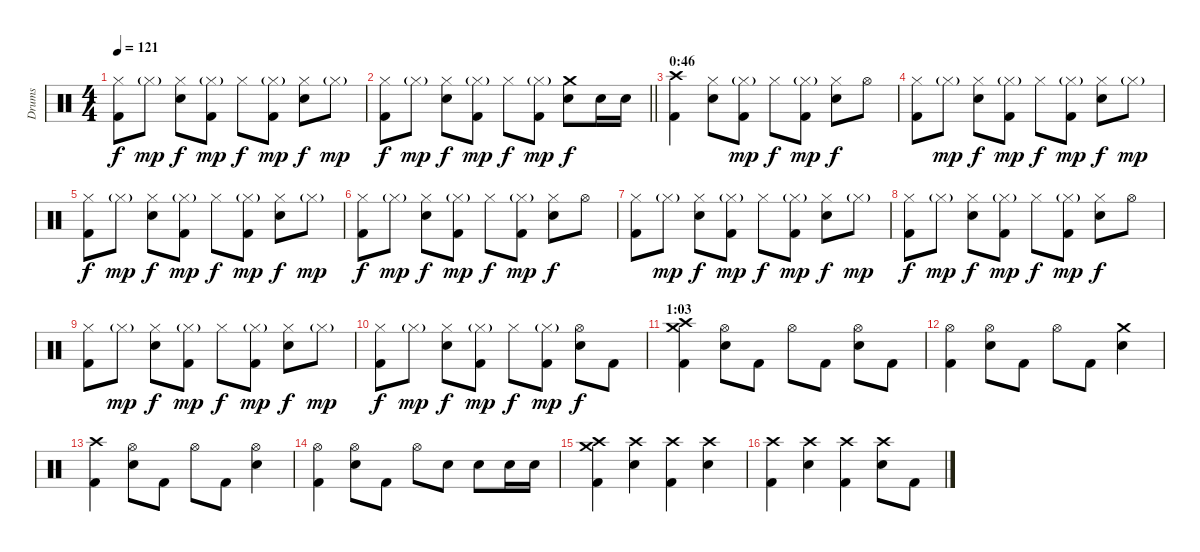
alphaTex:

\track ("Drums" "Drums") {instrument percussion}
\staff {score}
\articulation defaults
\ts (4 4)
\tempo 121
\clef neutral
\ks c
("Hi-Hat (closed)" "Kick (hit) 2").8{dy f} "Hi-Hat (closed)"{g}.8{dy mp} ("Hi-Hat (closed)" "Snare (hit) 2").8{dy f} ("Hi-Hat (closed)"{g} "Kick (hit) 2").8{dy mp} "Hi-Hat (closed)".8{dy f} ("Hi-Hat (closed)"{g} "Kick (hit) 2").8{dy mp} ("Hi-Hat (closed)" "Snare (hit) 2").8{dy f} "Hi-Hat (closed)"{g}.8{dy mp} |
\barLineRight lightlight
("Hi-Hat (closed)" "Kick (hit) 2").8{dy f} "Hi-Hat (closed)"{g}.8{dy mp} ("Hi-Hat (closed)" "Snare (hit) 2").8{dy f} ("Hi-Hat (closed)"{g} "Kick (hit) 2").8{dy mp} "Hi-Hat (closed)".8{dy f} ("Hi-Hat (closed)"{g} "Kick (hit) 2").8{dy mp} ("Crash medium (hit)" "Snare (hit) 2").8{dy f} "Snare (hit) 2".16 "Snare (hit) 2".16 |
\section ("" "0:46")
("Crash high (hit)" "Kick (hit) 2").4 ("Hi-Hat (closed)" "Snare (hit) 2").8 ("Hi-Hat (closed)"{g} "Kick (hit) 2").8{dy mp} "Hi-Hat (closed)".8{dy f} ("Hi-Hat (closed)"{g} "Kick (hit) 2").8{dy mp} ("Hi-Hat (closed)" "Snare (hit) 2").8{dy f} "Hi-Hat (open)".8 |
("Hi-Hat (closed)" "Kick (hit) 2").8 "Hi-Hat (closed)"{g}.8{dy mp} ("Hi-Hat (closed)" "Snare (hit) 2").8{dy f} ("Hi-Hat (closed)"{g} "Kick (hit) 2").8{dy mp} "Hi-Hat (closed)".8{dy f} ("Hi-Hat (closed)"{g} "Kick (hit) 2").8{dy mp} ("Hi-Hat (closed)" "Snare (hit) 2").8{dy f} "Hi-Hat (closed)"{g}.8{dy mp} |
("Hi-Hat (closed)" "Kick (hit) 2").8{dy f} "Hi-Hat (closed)"{g}.8{dy mp} ("Hi-Hat (closed)" "Snare (hit) 2").8{dy f} ("Hi-Hat (closed)"{g} "Kick (hit) 2").8{dy mp} "Hi-Hat (closed)".8{dy f} ("Hi-Hat (closed)"{g} "Kick (hit) 2").8{dy mp} ("Hi-Hat (closed)" "Snare (hit) 2").8{dy f} "Hi-Hat (closed)"{g}.8{dy mp} |
("Hi-Hat (closed)" "Kick (hit) 2").8{dy f} "Hi-Hat (closed)"{g}.8{dy mp} ("Hi-Hat (closed)" "Snare (hit) 2").8{dy f} ("Hi-Hat (closed)"{g} "Kick (hit) 2").8{dy mp} "Hi-Hat (closed)".8{dy f} ("Hi-Hat (closed)"{g} "Kick (hit) 2").8{dy mp} ("Hi-Hat (closed)" "Snare (hit) 2").8{dy f} "Hi-Hat (open)".8 |
("Hi-Hat (closed)" "Kick (hit) 2").8 "Hi-Hat (closed)"{g}.8{dy mp} ("Hi-Hat (closed)" "Snare (hit) 2").8{dy f} ("Hi-Hat (closed)"{g} "Kick (hit) 2").8{dy mp} "Hi-Hat (closed)".8{dy f} ("Hi-Hat (closed)"{g} "Kick (hit) 2").8{dy mp} ("Hi-Hat (closed)" "Snare (hit) 2").8{dy f} "Hi-Hat (closed)"{g}.8{dy mp} |
("Hi-Hat (closed)" "Kick (hit) 2").8{dy f} "Hi-Hat (closed)"{g}.8{dy mp} ("Hi-Hat (closed)" "Snare (hit) 2").8{dy f} ("Hi-Hat (closed)"{g} "Kick (hit) 2").8{dy mp} "Hi-Hat (closed)".8{dy f} ("Hi-Hat (closed)"{g} "Kick (hit) 2").8{dy mp} ("Hi-Hat (closed)" "Snare (hit) 2").8{dy f} "Hi-Hat (open)".8 |
("Hi-Hat (closed)" "Kick (hit) 2").8 "Hi-Hat (closed)"{g}.8{dy mp} ("Hi-Hat (closed)" "Snare (hit) 2").8{dy f} ("Hi-Hat (closed)"{g} "Kick (hit) 2").8{dy mp} "Hi-Hat (closed)".8{dy f} ("Hi-Hat (closed)"{g} "Kick (hit) 2").8{dy mp} ("Hi-Hat (closed)" "Snare (hit) 2").8{dy f} "Hi-Hat (closed)"{g}.8{dy mp} |
("Hi-Hat (closed)" "Kick (hit) 2").8{dy f} "Hi-Hat (closed)"{g}.8{dy mp} ("Hi-Hat (closed)" "Snare (hit) 2").8{dy f} ("Hi-Hat (closed)"{g} "Kick (hit) 2").8{dy mp} "Hi-Hat (closed)".8{dy f} ("Hi-Hat (closed)"{g} "Kick (hit) 2").8{dy mp} ("Hi-Hat (open)" "Snare (hit) 2").8{dy f} "Kick (hit) 2".8 |
\section ("" "1:03")
("Crash high (hit)" "Crash medium (hit)" "Kick (hit) 2").4 ("Hi-Hat (open)" "Snare (hit) 2").8 "Kick (hit) 2".8 "Hi-Hat (open)".8 "Kick (hit) 2".8 ("Hi-Hat (open)" "Snare (hit) 2").8 "Kick (hit) 2".8 |
("Hi-Hat (open)" "Kick (hit) 2").4 ("Hi-Hat (open)" "Snare (hit) 2").8 "Kick (hit) 2".8 "Hi-Hat (open)".8 "Kick (hit) 2".8 ("Crash medium (hit)" "Snare (hit) 2").4 |
("Crash high (hit)" "Kick (hit) 2").4 ("Hi-Hat (open)" "Snare (hit) 2").8 "Kick (hit) 2".8 "Hi-Hat (open)".8 "Kick (hit) 2".8 ("Hi-Hat (open)" "Snare (hit) 2").4 |
("Hi-Hat (open)" "Kick (hit) 2").4 ("Hi-Hat (open)" "Snare (hit) 2").8 "Kick (hit) 2".8 "Hi-Hat (open)".8 "Snare (hit) 2".8 "Snare (hit) 2".8 "Snare (hit) 2".16 "Snare (hit) 2".16 |
("Crash high (hit)" "Crash medium (hit)" "Kick (hit) 2").4 ("Crash high (hit)" "Snare (hit) 2").4 ("Crash high (hit)" "Kick (hit) 2").4 ("Crash high (hit)" "Snare (hit) 2").4 |
("Crash high (hit)" "Kick (hit) 2").4 ("Crash high (hit)" "Snare (hit) 2").4 ("Crash high (hit)" "Kick (hit) 2").4 ("Crash high (hit)" "Snare (hit) 2").8 "Kick (hit) 2".8
